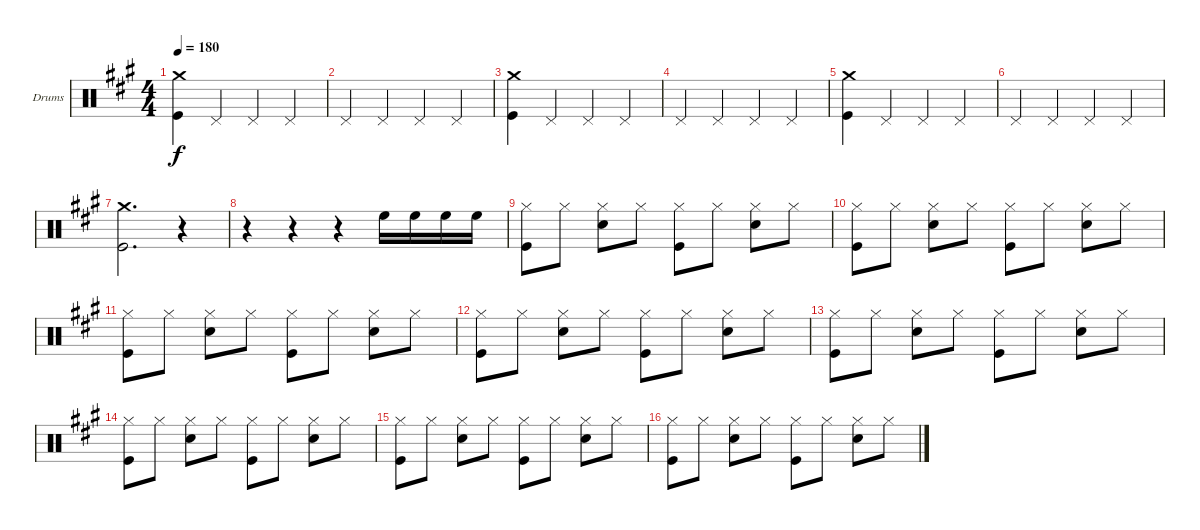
\bracketExtendMode groupsimilarinstruments
\firstSystemTrackNameOrientation horizontal
\otherSystemsTrackNameOrientation horizontal
\track ("Drumkit" "Drums") {instrument percussion}
\staff {score}
\articulation defaults
\ts (4 4)
\tempo 180
\clef neutral
\ks a
("Crash medium (hit)" "Kick (hit)").4{dy f} "Pedal Hi-Hat (hit)".4 "Pedal Hi-Hat (hit)".4 "Pedal Hi-Hat (hit)".4 |
"Pedal Hi-Hat (hit)".4 "Pedal Hi-Hat (hit)".4 "Pedal Hi-Hat (hit)".4 "Pedal Hi-Hat (hit)".4 |
("Crash medium (hit)" "Kick (hit)").4 "Pedal Hi-Hat (hit)".4 "Pedal Hi-Hat (hit)".4 "Pedal Hi-Hat (hit)".4 |
"Pedal Hi-Hat (hit)".4 "Pedal Hi-Hat (hit)".4 "Pedal Hi-Hat (hit)".4 "Pedal Hi-Hat (hit)".4 |
("Crash medium (hit)" "Kick (hit)").4 "Pedal Hi-Hat (hit)".4 "Pedal Hi-Hat (hit)".4 "Pedal Hi-Hat (hit)".4 |
"Pedal Hi-Hat (hit)".4 "Pedal Hi-Hat (hit)".4 "Pedal Hi-Hat (hit)".4 "Pedal Hi-Hat (hit)".4 |
("Crash medium (hit)" "Kick (hit)").2{d} r.4 |
r.4 r.4 r.4 "High Floor Tom (hit)".16 "High Floor Tom (hit)".16 "High Floor Tom (hit)".16 "High Floor Tom (hit)".16 |
("Hi-Hat (closed)" "Kick (hit)").8 "Hi-Hat (closed)".8 ("Hi-Hat (closed)" "Snare (hit) 2").8 "Hi-Hat (closed)".8 ("Hi-Hat (closed)" "Kick (hit)").8 "Hi-Hat (closed)".8 ("Hi-Hat (closed)" "Snare (hit) 2").8 "Hi-Hat (closed)".8 |
("Hi-Hat (closed)" "Kick (hit)").8 "Hi-Hat (closed)".8 ("Hi-Hat (closed)" "Snare (hit) 2").8 "Hi-Hat (closed)".8 ("Hi-Hat (closed)" "Kick (hit)").8 "Hi-Hat (closed)".8 ("Hi-Hat (closed)" "Snare (hit) 2").8 "Hi-Hat (closed)".8 |
("Hi-Hat (closed)" "Kick (hit)").8 "Hi-Hat (closed)".8 ("Hi-Hat (closed)" "Snare (hit) 2").8 "Hi-Hat (closed)".8 ("Hi-Hat (closed)" "Kick (hit)").8 "Hi-Hat (closed)".8 ("Hi-Hat (closed)" "Snare (hit) 2").8 "Hi-Hat (closed)".8 |
("Hi-Hat (closed)" "Kick (hit)").8 "Hi-Hat (closed)".8 ("Hi-Hat (closed)" "Snare (hit) 2").8 "Hi-Hat (closed)".8 ("Hi-Hat (closed)" "Kick (hit)").8 "Hi-Hat (closed)".8 ("Hi-Hat (closed)" "Snare (hit) 2").8 "Hi-Hat (closed)".8 |
("Hi-Hat (closed)" "Kick (hit)").8 "Hi-Hat (closed)".8 ("Hi-Hat (closed)" "Snare (hit) 2").8 "Hi-Hat (closed)".8 ("Hi-Hat (closed)" "Kick (hit)").8 "Hi-Hat (closed)".8 ("Hi-Hat (closed)" "Snare (hit) 2").8 "Hi-Hat (closed)".8 |
("Hi-Hat (closed)" "Kick (hit)").8 "Hi-Hat (closed)".8 ("Hi-Hat (closed)" "Snare (hit) 2").8 "Hi-Hat (closed)".8 ("Hi-Hat (closed)" "Kick (hit)").8 "Hi-Hat (closed)".8 ("Hi-Hat (closed)" "Snare (hit) 2").8 "Hi-Hat (closed)".8 |
("Hi-Hat (closed)" "Kick (hit)").8 "Hi-Hat (closed)".8 ("Hi-Hat (closed)" "Snare (hit) 2").8 "Hi-Hat (closed)".8 ("Hi-Hat (closed)" "Kick (hit)").8 "Hi-Hat (closed)".8 ("Hi-Hat (closed)" "Snare (hit) 2").8 "Hi-Hat (closed)".8 |
("Hi-Hat (closed)" "Kick (hit)").8 "Hi-Hat (closed)".8 ("Hi-Hat (closed)" "Snare (hit) 2").8 "Hi-Hat (closed)".8 ("Hi-Hat (closed)" "Kick (hit)").8 "Hi-Hat (closed)".8 ("Hi-Hat (closed)" "Snare (hit) 2").8 "Hi-Hat (closed)".8
